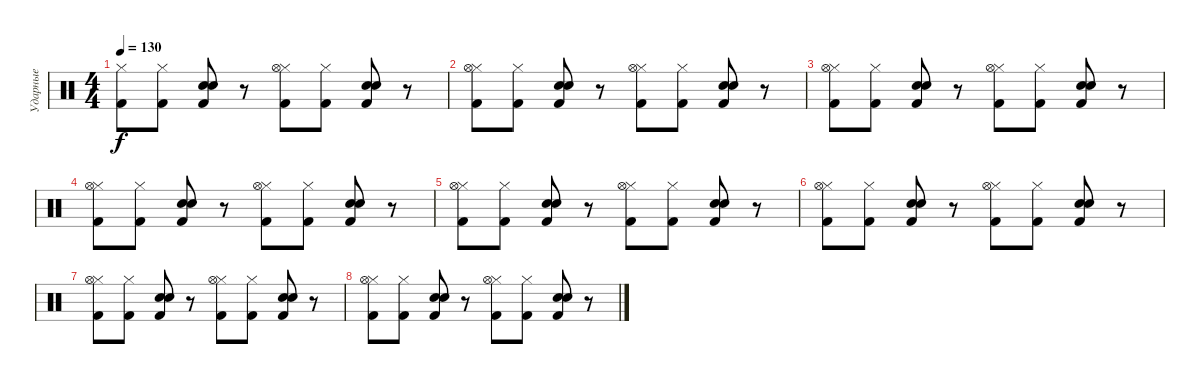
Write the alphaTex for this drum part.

\track ("Ударные" "Ударные") {instrument percussion}
\staff {score}
\articulation defaults
\ts (4 4)
\tempo 130
\clef neutral
\ks c
("Hi-Hat (closed)" "Kick (hit) 2").8{dy f} ("Hi-Hat (closed)" "Kick (hit) 2").8 ("Snare (hit) 2" "Kick (hit) 2" "Electric Snare (hit)").8 r.8 ("Hi-Hat (closed)" "Kick (hit) 2" "Hi-Hat (open)").8 ("Hi-Hat (closed)" "Kick (hit) 2").8 ("Snare (hit) 2" "Kick (hit) 2" "Electric Snare (hit)").8 r.8 |
("Hi-Hat (closed)" "Kick (hit) 2" "Hi-Hat (open)").8 ("Hi-Hat (closed)" "Kick (hit) 2").8 ("Snare (hit) 2" "Kick (hit) 2" "Electric Snare (hit)").8 r.8 ("Hi-Hat (closed)" "Kick (hit) 2" "Hi-Hat (open)").8 ("Hi-Hat (closed)" "Kick (hit) 2").8 ("Snare (hit) 2" "Kick (hit) 2" "Electric Snare (hit)").8 r.8 |
("Hi-Hat (closed)" "Kick (hit) 2" "Hi-Hat (open)").8 ("Hi-Hat (closed)" "Kick (hit) 2").8 ("Snare (hit) 2" "Kick (hit) 2" "Electric Snare (hit)").8 r.8 ("Hi-Hat (closed)" "Kick (hit) 2" "Hi-Hat (open)").8 ("Hi-Hat (closed)" "Kick (hit) 2").8 ("Snare (hit) 2" "Kick (hit) 2" "Electric Snare (hit)").8 r.8 |
("Hi-Hat (closed)" "Kick (hit) 2" "Hi-Hat (open)").8 ("Hi-Hat (closed)" "Kick (hit) 2").8 ("Snare (hit) 2" "Kick (hit) 2" "Electric Snare (hit)").8 r.8 ("Hi-Hat (closed)" "Kick (hit) 2" "Hi-Hat (open)").8 ("Hi-Hat (closed)" "Kick (hit) 2").8 ("Snare (hit) 2" "Kick (hit) 2" "Electric Snare (hit)").8 r.8 |
("Hi-Hat (closed)" "Kick (hit) 2" "Hi-Hat (open)").8 ("Hi-Hat (closed)" "Kick (hit) 2").8 ("Snare (hit) 2" "Kick (hit) 2" "Electric Snare (hit)").8 r.8 ("Hi-Hat (closed)" "Kick (hit) 2" "Hi-Hat (open)").8 ("Hi-Hat (closed)" "Kick (hit) 2").8 ("Snare (hit) 2" "Kick (hit) 2" "Electric Snare (hit)").8 r.8 |
("Hi-Hat (closed)" "Kick (hit) 2" "Hi-Hat (open)").8 ("Hi-Hat (closed)" "Kick (hit) 2").8 ("Snare (hit) 2" "Kick (hit) 2" "Electric Snare (hit)").8 r.8 ("Hi-Hat (closed)" "Kick (hit) 2" "Hi-Hat (open)").8 ("Hi-Hat (closed)" "Kick (hit) 2").8 ("Snare (hit) 2" "Kick (hit) 2" "Electric Snare (hit)").8 r.8 |
("Hi-Hat (closed)" "Kick (hit) 2" "Hi-Hat (open)").8 ("Hi-Hat (closed)" "Kick (hit) 2").8 ("Snare (hit) 2" "Kick (hit) 2" "Electric Snare (hit)").8 r.8 ("Hi-Hat (closed)" "Kick (hit) 2" "Hi-Hat (open)").8 ("Hi-Hat (closed)" "Kick (hit) 2").8 ("Snare (hit) 2" "Kick (hit) 2" "Electric Snare (hit)").8 r.8 |
("Hi-Hat (closed)" "Kick (hit) 2" "Hi-Hat (open)").8 ("Hi-Hat (closed)" "Kick (hit) 2").8 ("Snare (hit) 2" "Kick (hit) 2" "Electric Snare (hit)").8 r.8 ("Hi-Hat (closed)" "Kick (hit) 2" "Hi-Hat (open)").8 ("Hi-Hat (closed)" "Kick (hit) 2").8 ("Snare (hit) 2" "Kick (hit) 2" "Electric Snare (hit)").8 r.8
